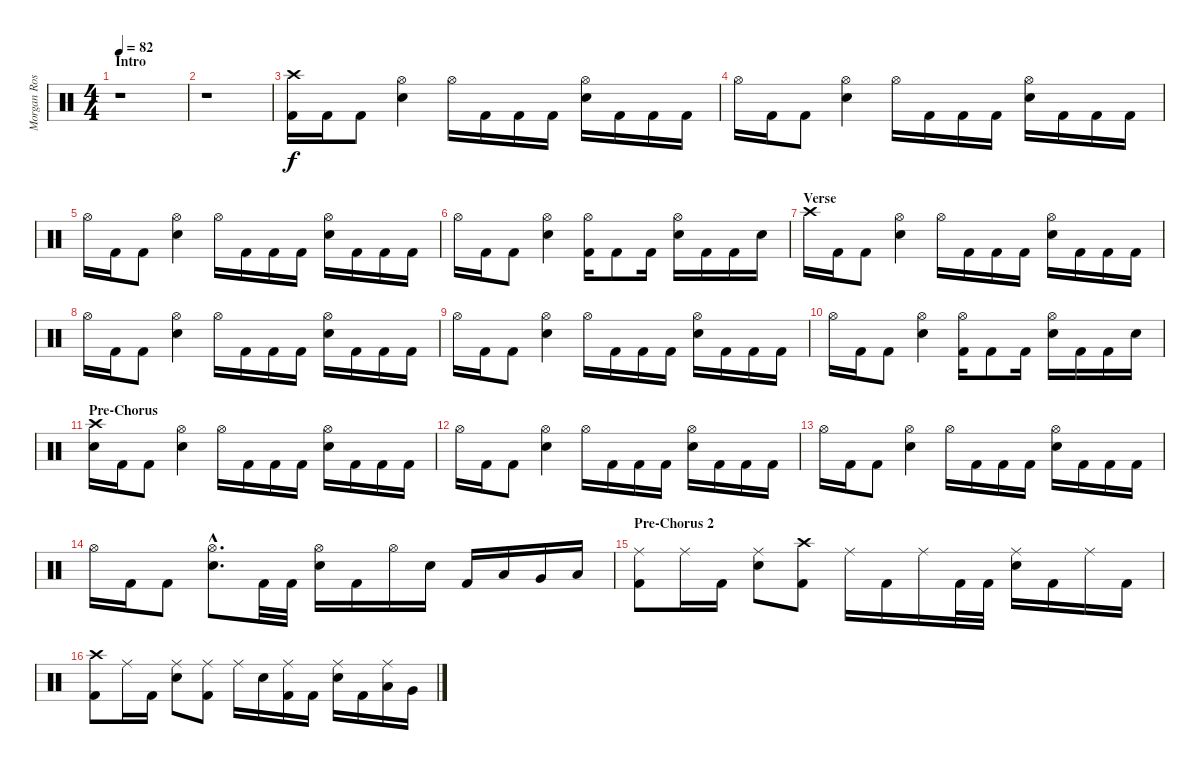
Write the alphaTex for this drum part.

\track ("Morgan Rose" "Morgan Ros") {instrument percussion}
\staff {score}
\articulation defaults
\ts (4 4)
\section ("" "Intro")
\tempo 82
\clef neutral
\ks c
r.1{dy f} |
r.1 |
("Crash high (hit)" "Kick (hit) 2").16 "Kick (hit) 2".16 "Kick (hit) 2".8 ("Hi-Hat (open)" "Electric Snare (hit)").4 "Hi-Hat (open)".16 "Kick (hit) 2".16 "Kick (hit) 2".16 "Kick (hit) 2".16 ("Hi-Hat (open)" "Electric Snare (hit)").16 "Kick (hit) 2".16 "Kick (hit) 2".16 "Kick (hit) 2".16 |
"Hi-Hat (open)".16 "Kick (hit) 2".16 "Kick (hit) 2".8 ("Hi-Hat (open)" "Electric Snare (hit)").4 "Hi-Hat (open)".16 "Kick (hit) 2".16 "Kick (hit) 2".16 "Kick (hit) 2".16 ("Hi-Hat (open)" "Electric Snare (hit)").16 "Kick (hit) 2".16 "Kick (hit) 2".16 "Kick (hit) 2".16 |
"Hi-Hat (open)".16 "Kick (hit) 2".16 "Kick (hit) 2".8 ("Hi-Hat (open)" "Electric Snare (hit)").4 "Hi-Hat (open)".16 "Kick (hit) 2".16 "Kick (hit) 2".16 "Kick (hit) 2".16 ("Hi-Hat (open)" "Electric Snare (hit)").16 "Kick (hit) 2".16 "Kick (hit) 2".16 "Kick (hit) 2".16 |
"Hi-Hat (open)".16 "Kick (hit) 2".16 "Kick (hit) 2".8 ("Hi-Hat (open)" "Electric Snare (hit)").4 ("Hi-Hat (open)" "Kick (hit) 2").16 "Kick (hit) 2".8 "Kick (hit) 2".16 ("Hi-Hat (open)" "Electric Snare (hit)").16 "Kick (hit) 2".16 "Kick (hit) 2".16 "Electric Snare (hit)".16 |
\section ("" "Verse")
"Crash high (hit)".16 "Kick (hit) 2".16 "Kick (hit) 2".8 ("Hi-Hat (open)" "Electric Snare (hit)").4 "Hi-Hat (open)".16 "Kick (hit) 2".16 "Kick (hit) 2".16 "Kick (hit) 2".16 ("Hi-Hat (open)" "Electric Snare (hit)").16 "Kick (hit) 2".16 "Kick (hit) 2".16 "Kick (hit) 2".16 |
"Hi-Hat (open)".16 "Kick (hit) 2".16 "Kick (hit) 2".8 ("Hi-Hat (open)" "Electric Snare (hit)").4 "Hi-Hat (open)".16 "Kick (hit) 2".16 "Kick (hit) 2".16 "Kick (hit) 2".16 ("Hi-Hat (open)" "Electric Snare (hit)").16 "Kick (hit) 2".16 "Kick (hit) 2".16 "Kick (hit) 2".16 |
"Hi-Hat (open)".16 "Kick (hit) 2".16 "Kick (hit) 2".8 ("Hi-Hat (open)" "Electric Snare (hit)").4 "Hi-Hat (open)".16 "Kick (hit) 2".16 "Kick (hit) 2".16 "Kick (hit) 2".16 ("Hi-Hat (open)" "Electric Snare (hit)").16 "Kick (hit) 2".16 "Kick (hit) 2".16 "Kick (hit) 2".16 |
"Hi-Hat (open)".16 "Kick (hit) 2".16 "Kick (hit) 2".8 ("Hi-Hat (open)" "Electric Snare (hit)").4 ("Hi-Hat (open)" "Kick (hit) 2").16 "Kick (hit) 2".8 "Kick (hit) 2".16 ("Hi-Hat (open)" "Electric Snare (hit)").16 "Kick (hit) 2".16 "Kick (hit) 2".16 "Electric Snare (hit)".16 |
\section ("" "Pre-Chorus")
("Crash high (hit)" "Electric Snare (hit)").16 "Kick (hit) 2".16 "Kick (hit) 2".8 ("Hi-Hat (open)" "Electric Snare (hit)").4 "Hi-Hat (open)".16 "Kick (hit) 2".16 "Kick (hit) 2".16 "Kick (hit) 2".16 ("Hi-Hat (open)" "Electric Snare (hit)").16 "Kick (hit) 2".16 "Kick (hit) 2".16 "Kick (hit) 2".16 |
"Hi-Hat (open)".16 "Kick (hit) 2".16 "Kick (hit) 2".8 ("Hi-Hat (open)" "Electric Snare (hit)").4 "Hi-Hat (open)".16 "Kick (hit) 2".16 "Kick (hit) 2".16 "Kick (hit) 2".16 ("Hi-Hat (open)" "Electric Snare (hit)").16 "Kick (hit) 2".16 "Kick (hit) 2".16 "Kick (hit) 2".16 |
"Hi-Hat (open)".16 "Kick (hit) 2".16 "Kick (hit) 2".8 ("Hi-Hat (open)" "Electric Snare (hit)").4 "Hi-Hat (open)".16 "Kick (hit) 2".16 "Kick (hit) 2".16 "Kick (hit) 2".16 ("Hi-Hat (open)" "Electric Snare (hit)").16 "Kick (hit) 2".16 "Kick (hit) 2".16 "Kick (hit) 2".16 |
"Hi-Hat (open)".16 "Kick (hit) 2".16 "Kick (hit) 2".8 ("Hi-Hat (open)"{hac} "Electric Snare (hit)"{hac}).8{d} "Kick (hit) 2".32 "Kick (hit) 2".32 ("Hi-Hat (open)" "Electric Snare (hit)").16 "Kick (hit) 2".16 "Hi-Hat (open)".16 "Electric Snare (hit)".16 "Kick (hit) 2".16 "Low Tom (hit)".16 "Very Low Tom (hit)".16 "Low Floor Tom (hit)".16 |
\section ("" "Pre-Chorus 2")
("Ride (middle)" "Kick (hit) 2").8 "Ride (middle)".16 "Kick (hit) 2".16 ("Ride (middle)" "Electric Snare (hit)").8 ("Crash high (hit)" "Kick (hit) 2").8 "Ride (middle)".16 "Kick (hit) 2".16 "Ride (middle)".16 "Kick (hit) 2".32 "Kick (hit) 2".32 ("Ride (middle)" "Electric Snare (hit)").16 "Kick (hit) 2".16 "Ride (middle)".16 "Kick (hit) 2".16 |
("Crash high (hit)" "Kick (hit) 2").8 "Ride (middle)".16 "Kick (hit) 2".16 ("Ride (middle)" "Electric Snare (hit)").8 ("Ride (middle)" "Kick (hit) 2").8 "Ride (middle)".16 "Electric Snare (hit)".16 ("Ride (middle)" "Kick (hit) 2").16 "Kick (hit) 2".16 ("Ride (middle)" "Electric Snare (hit)").16 "Kick (hit) 2".16 ("Ride (middle)" "Low Tom (hit)").16 "Very Low Tom (hit)".16
